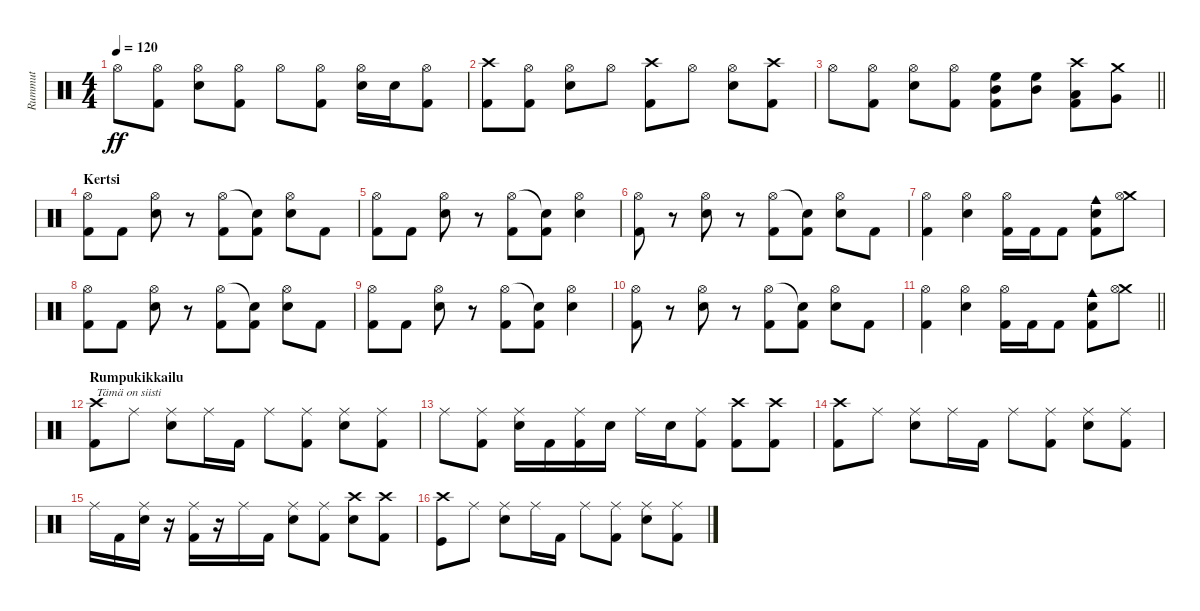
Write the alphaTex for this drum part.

\track ("Rummut" "Rummut") {instrument percussion}
\staff {score}
\articulation defaults
\ts (4 4)
\tempo 120
\clef neutral
\ks c "Hi-Hat (open)".8{dy ff}
("Hi-Hat (open)" "Kick (hit) 2").8 ("Hi-Hat (open)" "Snare (hit) 2").8 ("Hi-Hat (open)" "Kick (hit) 2").8 "Hi-Hat (open)".8 ("Hi-Hat (open)" "Kick (hit) 2").8 ("Hi-Hat (open)" "Snare (hit) 2").16 "Snare (hit) 2".16 ("Hi-Hat (open)" "Kick (hit) 2").8 |
("Crash high (hit)" "Kick (hit) 2").8 ("Hi-Hat (open)" "Kick (hit) 2").8 ("Hi-Hat (open)" "Snare (hit) 2").8 "Hi-Hat (open)".8 ("Crash high (hit)" "Kick (hit) 2").8 "Hi-Hat (open)".8 ("Hi-Hat (open)" "Snare (hit) 2").8 ("Crash high (hit)" "Kick (hit) 2").8 |
\barLineRight lightlight "Hi-Hat (open)".8
("Hi-Hat (open)" "Kick (hit) 2").8 ("Hi-Hat (open)" "Snare (hit) 2").8 ("Hi-Hat (open)" "Kick (hit) 2").8 ("Mid Tom (hit)" "High Floor Tom (hit)" "Kick (hit) 2").8 ("Mid Tom (hit)" "High Floor Tom (hit)").8 ("Low Tom (hit)" "Kick (hit) 2" "Crash high (hit)").8 ("Very Low Tom (hit)" "Crash medium (hit)").8 |
\section ("" "Kertsi")
("Hi-Hat (open)" "Kick (hit) 2").8 "Kick (hit) 2".8 ("Hi-Hat (open)" "Snare (hit) 2").8 r.8 ("Hi-Hat (open)" "Kick (hit) 2").8 ("Snare (hit)"{t} "Kick (hit) 2").8 ("Hi-Hat (open)" "Snare (hit) 2").8 "Kick (hit) 2".8 |
("Hi-Hat (open)" "Kick (hit) 2").8 "Kick (hit) 2".8 ("Hi-Hat (open)" "Snare (hit) 2").8 r.8 ("Hi-Hat (open)" "Kick (hit) 2").8 ("Snare (hit)"{t} "Kick (hit) 2").8 ("Hi-Hat (open)" "Snare (hit) 2").4 |
("Hi-Hat (open)" "Kick (hit) 2").8 r.8 ("Hi-Hat (open)" "Snare (hit) 2").8 r.8 ("Hi-Hat (open)" "Kick (hit) 2").8 ("Snare (hit)"{t} "Kick (hit) 2").8 ("Hi-Hat (open)" "Snare (hit) 2").8 "Kick (hit) 2".8 |
("Hi-Hat (open)" "Kick (hit) 2").4 ("Hi-Hat (open)" "Snare (hit) 2").4 ("Hi-Hat (open)" "Kick (hit) 2").16 "Kick (hit) 2".16 "Kick (hit) 2".8 ("Cowbell medium (hit)" "Snare (hit) 2" "Kick (hit) 2").8 ("Crash medium (hit)" "Hi-Hat (open)").8 |
("Hi-Hat (open)" "Kick (hit) 2").8 "Kick (hit) 2".8 ("Hi-Hat (open)" "Snare (hit) 2").8 r.8 ("Hi-Hat (open)" "Kick (hit) 2").8 ("Snare (hit)"{t} "Kick (hit) 2").8 ("Hi-Hat (open)" "Snare (hit) 2").8 "Kick (hit) 2".8 |
("Hi-Hat (open)" "Kick (hit) 2").8 "Kick (hit) 2".8 ("Hi-Hat (open)" "Snare (hit) 2").8 r.8 ("Hi-Hat (open)" "Kick (hit) 2").8 ("Snare (hit)"{t} "Kick (hit) 2").8 ("Hi-Hat (open)" "Snare (hit) 2").4 |
("Hi-Hat (open)" "Kick (hit) 2").8 r.8 ("Hi-Hat (open)" "Snare (hit) 2").8 r.8 ("Hi-Hat (open)" "Kick (hit) 2").8 ("Snare (hit)"{t} "Kick (hit) 2").8 ("Hi-Hat (open)" "Snare (hit) 2").8 "Kick (hit) 2".8 |
\barLineRight lightlight
("Hi-Hat (open)" "Kick (hit) 2").4 ("Hi-Hat (open)" "Snare (hit) 2").4 ("Hi-Hat (open)" "Kick (hit) 2").16 "Kick (hit) 2".16 "Kick (hit) 2".8 ("Cowbell medium (hit)" "Snare (hit) 2" "Kick (hit) 2").8 ("Crash medium (hit)" "Hi-Hat (open)").8 |
\section ("" "Rumpukikkailu")
("Crash high (hit)" "Kick (hit) 2").8{txt "Tämä on siisti"} "Ride (middle)".8 ("Ride (middle)" "Snare (hit) 2").8 "Ride (middle)".16 "Kick (hit) 2".16 "Ride (middle)".8 ("Ride (middle)" "Kick (hit) 2").8 ("Ride (middle)" "Snare (hit) 2").8 ("Ride (middle)" "Kick (hit) 2").8 |
"Ride (middle)".8 ("Ride (middle)" "Kick (hit) 2").8 ("Ride (middle)" "Snare (hit) 2").16 "Kick (hit) 2".16 ("Ride (middle)" "Kick (hit) 2").16 "Snare (hit) 2".16 "Ride (middle)".16 "Snare (hit) 2".16 ("Ride (middle)" "Kick (hit) 2").8 ("Crash high (hit)" "Kick (hit) 2").8 ("Crash high (hit)" "Kick (hit) 2").8 |
("Crash high (hit)" "Kick (hit) 2").8 "Ride (middle)".8 ("Ride (middle)" "Snare (hit) 2").8 "Ride (middle)".16 "Kick (hit) 2".16 "Ride (middle)".8 ("Ride (middle)" "Kick (hit) 2").8 ("Ride (middle)" "Snare (hit) 2").8 ("Ride (middle)" "Kick (hit) 2").8 |
"Ride (middle)".16 "Kick (hit) 2".16 ("Ride (middle)" "Snare (hit) 2").16 r.16 ("Ride (middle)" "Kick (hit) 2").16 r.16 "Ride (middle)".16 "Kick (hit) 2".16 ("Ride (middle)" "Snare (hit) 2").8 ("Ride (middle)" "Kick (hit) 2").8 ("Crash high (hit)" "Snare (hit) 2").8 ("Crash high (hit)" "Kick (hit) 2").8 |
("Crash high (hit)" "Kick (hit)").8 "Ride (middle)".8 ("Ride (middle)" "Snare (hit) 2").8 "Ride (middle)".16 "Kick (hit) 2".16 "Ride (middle)".8 ("Ride (middle)" "Kick (hit) 2").8 ("Ride (middle)" "Snare (hit) 2").8 ("Ride (middle)" "Kick (hit) 2").8
